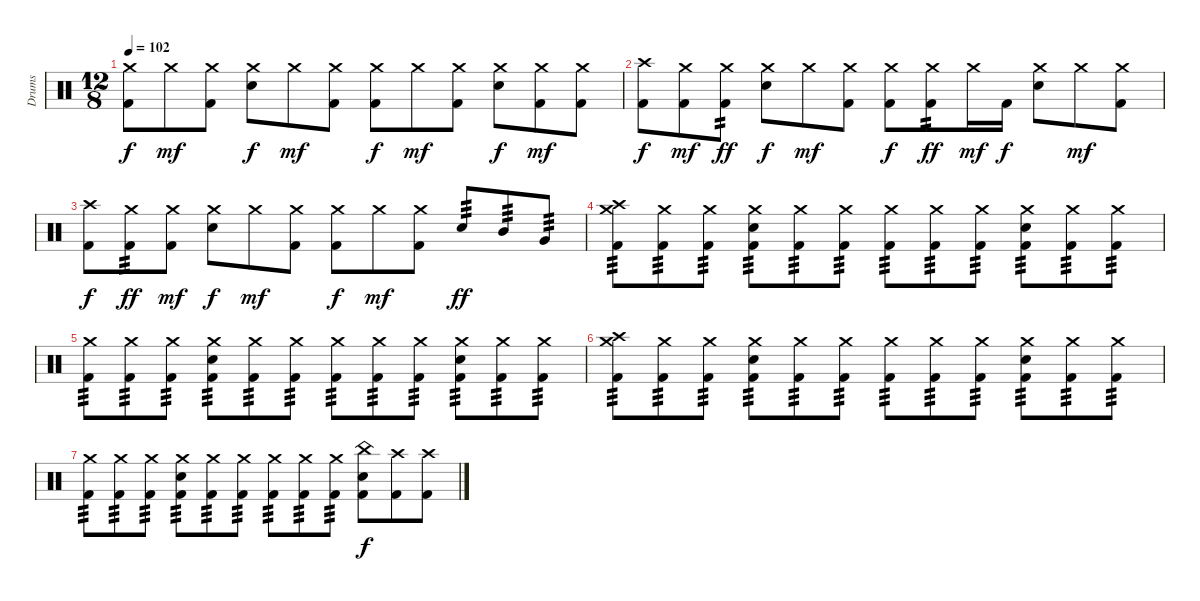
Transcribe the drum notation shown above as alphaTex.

\track ("Drums" "Drums") {instrument percussion}
\staff {score}
\articulation defaults
\ts (12 8)
\tempo 102
\clef neutral
\ks c
("Crash medium (hit)" "Kick (hit) 2").8{dy f} "Crash medium (hit)".8{dy mf} ("Crash medium (hit)" "Kick (hit) 2").8 ("Crash medium (hit)" "Snare (hit) 2").8{dy f} "Crash medium (hit)".8{dy mf} ("Crash medium (hit)" "Kick (hit) 2").8 ("Crash medium (hit)" "Kick (hit) 2").8{dy f} "Crash medium (hit)".8{dy mf} ("Crash medium (hit)" "Kick (hit) 2").8 ("Crash medium (hit)" "Snare (hit) 2").8{dy f} ("Crash medium (hit)" "Kick (hit) 2").8{dy mf} ("Crash medium (hit)" "Kick (hit) 2").8 |
("Crash high (hit)" "Kick (hit) 2").8{dy f} ("Crash medium (hit)" "Kick (hit) 2").8{dy mf} ("Crash medium (hit)" "Kick (hit) 2").8{tp 2 dy ff} ("Crash medium (hit)" "Snare (hit) 2").8{dy f} "Crash medium (hit)".8{dy mf} ("Crash medium (hit)" "Kick (hit) 2").8 ("Crash medium (hit)" "Kick (hit) 2").8{dy f} ("Crash medium (hit)" "Kick (hit) 2").8{tp 2 dy ff} "Crash medium (hit)".16{dy mf} "Kick (hit) 2".16{dy f} ("Crash medium (hit)" "Snare (hit) 2").8 "Crash medium (hit)".8{dy mf} ("Crash medium (hit)" "Kick (hit) 2").8 |
("Crash high (hit)" "Kick (hit) 2").8{dy f} ("Crash medium (hit)" "Kick (hit) 2").8{tp 3 dy ff} ("Crash medium (hit)" "Kick (hit) 2").8{dy mf} ("Crash medium (hit)" "Snare (hit) 2").8{dy f} "Crash medium (hit)".8{dy mf} ("Crash medium (hit)" "Kick (hit) 2").8 ("Crash medium (hit)" "Kick (hit) 2").8{dy f} "Crash medium (hit)".8{dy mf} ("Crash medium (hit)" "Kick (hit) 2").8 "Snare (hit) 2".8{tp 3 dy ff} "Mid Tom (hit)".8{tp 3} "Very Low Tom (hit)".8{tp 3} |
("Crash medium (hit)" "Crash high (hit)" "Kick (hit) 2").8{tp 3} ("Crash medium (hit)" "Kick (hit) 2").8{tp 3} ("Crash medium (hit)" "Kick (hit) 2").8{tp 3} ("Crash medium (hit)" "Snare (hit) 2" "Kick (hit) 2").8{tp 3} ("Crash medium (hit)" "Kick (hit) 2").8{tp 3} ("Crash medium (hit)" "Kick (hit) 2").8{tp 3} ("Crash medium (hit)" "Kick (hit) 2").8{tp 3} ("Crash medium (hit)" "Kick (hit) 2").8{tp 3} ("Crash medium (hit)" "Kick (hit) 2").8{tp 3} ("Crash medium (hit)" "Snare (hit) 2" "Kick (hit) 2").8{tp 3} ("Crash medium (hit)" "Kick (hit) 2").8{tp 3} ("Crash medium (hit)" "Kick (hit) 2").8{tp 3} |
("Crash medium (hit)" "Kick (hit) 2").8{tp 3} ("Crash medium (hit)" "Kick (hit) 2").8{tp 3} ("Crash medium (hit)" "Kick (hit) 2").8{tp 3} ("Crash medium (hit)" "Snare (hit) 2" "Kick (hit) 2").8{tp 3} ("Crash medium (hit)" "Kick (hit) 2").8{tp 3} ("Crash medium (hit)" "Kick (hit) 2").8{tp 3} ("Crash medium (hit)" "Kick (hit) 2").8{tp 3} ("Crash medium (hit)" "Kick (hit) 2").8{tp 3} ("Crash medium (hit)" "Kick (hit) 2").8{tp 3} ("Crash medium (hit)" "Snare (hit) 2" "Kick (hit) 2").8{tp 3} ("Crash medium (hit)" "Kick (hit) 2").8{tp 3} ("Crash medium (hit)" "Kick (hit) 2").8{tp 3} |
("Crash medium (hit)" "Crash high (hit)" "Kick (hit) 2").8{tp 3} ("Crash medium (hit)" "Kick (hit) 2").8{tp 3} ("Crash medium (hit)" "Kick (hit) 2").8{tp 3} ("Crash medium (hit)" "Snare (hit) 2" "Kick (hit) 2").8{tp 3} ("Crash medium (hit)" "Kick (hit) 2").8{tp 3} ("Crash medium (hit)" "Kick (hit) 2").8{tp 3} ("Crash medium (hit)" "Kick (hit) 2").8{tp 3} ("Crash medium (hit)" "Kick (hit) 2").8{tp 3} ("Crash medium (hit)" "Kick (hit) 2").8{tp 3} ("Crash medium (hit)" "Snare (hit) 2" "Kick (hit) 2").8{tp 3} ("Crash medium (hit)" "Kick (hit) 2").8{tp 3} ("Crash medium (hit)" "Kick (hit) 2").8{tp 3} |
("Crash medium (hit)" "Kick (hit) 2").8{tp 3} ("Crash medium (hit)" "Kick (hit) 2").8{tp 3} ("Crash medium (hit)" "Kick (hit) 2").8{tp 3} ("Crash medium (hit)" "Snare (hit) 2" "Kick (hit) 2").8{tp 3} ("Crash medium (hit)" "Kick (hit) 2").8{tp 3} ("Crash medium (hit)" "Kick (hit) 2").8{tp 3} ("Crash medium (hit)" "Kick (hit) 2").8{tp 3} ("Crash medium (hit)" "Kick (hit) 2").8{tp 3} ("Crash medium (hit)" "Kick (hit) 2").8{tp 3} ("China (hit)" "Snare (hit) 2" "Kick (hit) 2").8{dy f} ("Crash high (hit)" "Kick (hit) 2").8 ("Crash high (hit)" "Kick (hit) 2").8
